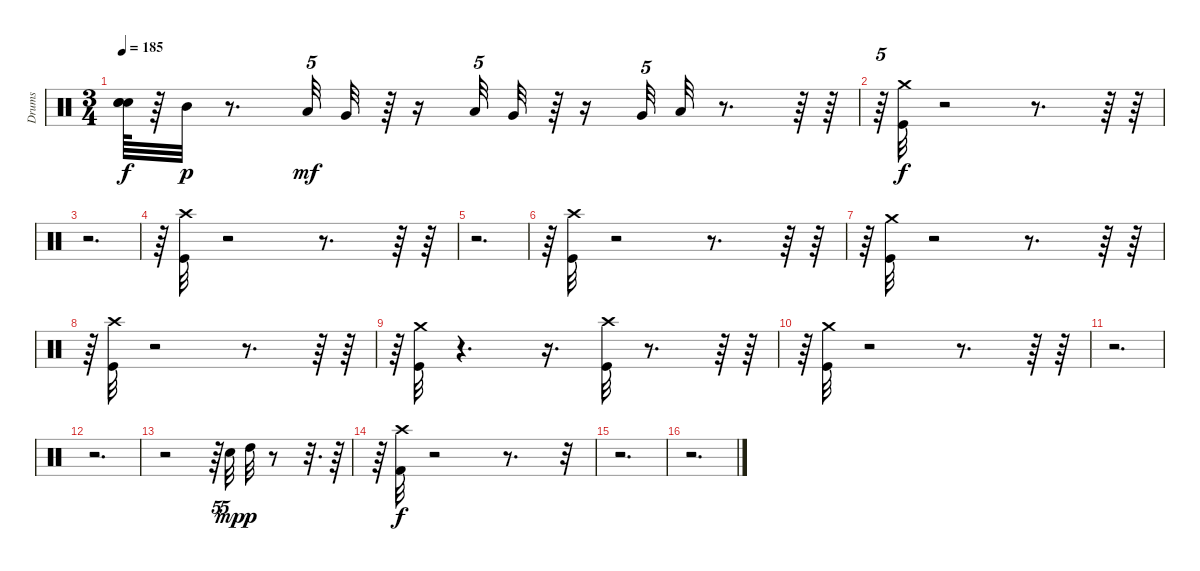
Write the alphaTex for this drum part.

\track ("Drums" "Drums") {instrument percussion}
\staff {score}
\articulation defaults
\ts (3 4)
\tempo 185
\clef neutral
\ks c
("Snare (hit)"{t} "Snare (hit)"{t} "Snare (hit)"{t}).64{dy f} r.64 "Mid Tom (hit)".32{dy p} r.8{d} "Low Tom (hit)".32{tu (5 4) dy mf} "Very Low Tom (hit)".32 r.64 r.16 "Low Tom (hit)".32{tu (5 4)} "Very Low Tom (hit)".32 r.64 r.16 "Very Low Tom (hit)".32{tu (5 4)} "Low Floor Tom (hit)".32 r.8{d} r.64 r.64 |
r.64{tu (5 4)} ("Crash medium (hit)" "Kick (hit)").32{dy f} r.2 r.8{d} r.64 r.64 |
r.2{d} |
r.64{tu (5 4)} ("Crash high (hit)" "Kick (hit)").32 r.2 r.8{d} r.64 r.64 |
r.2{d} |
r.64{tu (5 4)} ("Crash high (hit)" "Kick (hit)").32 r.2 r.8{d} r.64 r.64 |
r.64{tu (5 4)} ("Crash medium (hit)" "Kick (hit)").32 r.2 r.8{d} r.64 r.64 |
r.64{tu (5 4)} ("Crash high (hit)" "Kick (hit)").32 r.2 r.8{d} r.64 r.64 |
r.64{tu (5 4)} ("Crash medium (hit)" "Kick (hit)").32 r.4{d} r.16{d} ("Crash high (hit)" "Kick (hit)").32 r.8{d} r.64 r.64 |
r.64{tu (5 4)} ("Crash medium (hit)" "Kick (hit)").32 r.2 r.8{d} r.64 r.64 |
r.2{d} |
r.2{d} |
r.2 r.64{tu (5 4)} "Electric Snare (hit)".32{tu (5 4) dy mp} "High Tom (hit)".32{dy p} r.8 r.32{d} r.64 |
r.64 ("Kick (hit) 2" "Crash high (hit)").32{dy f} r.2 r.8{d} r.32{tu (5 4)} |
r.2{d} |
r.2{d}
